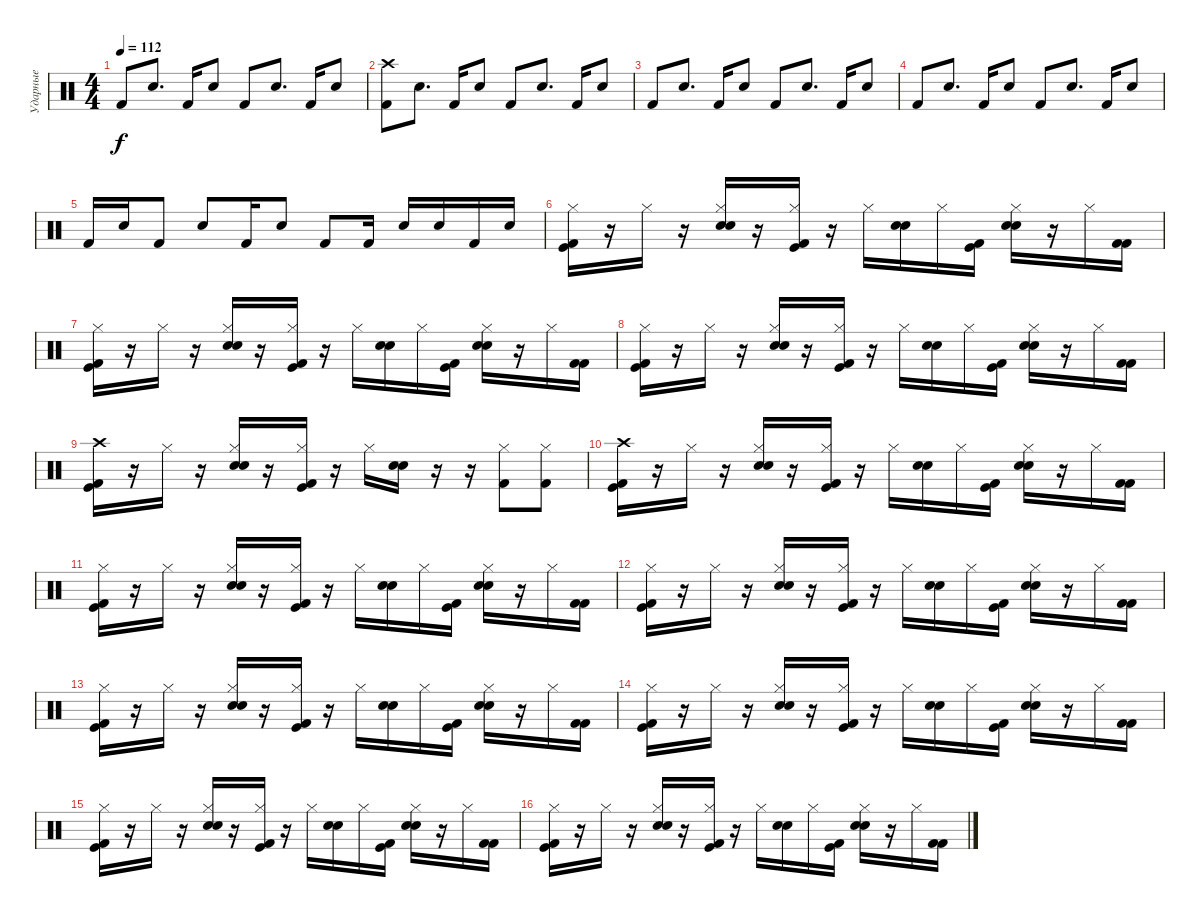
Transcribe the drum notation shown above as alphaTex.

\track ("Ударные" "Ударные") {instrument percussion}
\staff {score}
\articulation defaults
\ts (4 4)
\tempo 112
\clef neutral
\ks c "Kick (hit) 2".8{dy f} "Electric Snare (hit)".8{d} "Kick (hit) 2".16 "Electric Snare (hit)".8 "Kick (hit) 2".8 "Electric Snare (hit)".8{d} "Kick (hit) 2".16 "Electric Snare (hit)".8
|
("Kick (hit) 2" "Crash high (hit)").8 "Electric Snare (hit)".8{d} "Kick (hit) 2".16 "Electric Snare (hit)".8 "Kick (hit) 2".8 "Electric Snare (hit)".8{d} "Kick (hit) 2".16 "Electric Snare (hit)".8 |
"Kick (hit) 2".8 "Electric Snare (hit)".8{d} "Kick (hit) 2".16 "Electric Snare (hit)".8 "Kick (hit) 2".8 "Electric Snare (hit)".8{d} "Kick (hit) 2".16 "Electric Snare (hit)".8 |
"Kick (hit) 2".8 "Electric Snare (hit)".8{d} "Kick (hit) 2".16 "Electric Snare (hit)".8 "Kick (hit) 2".8 "Electric Snare (hit)".8{d} "Kick (hit) 2".16 "Electric Snare (hit)".8 |
"Kick (hit) 2".16 "Electric Snare (hit)".16 "Kick (hit) 2".8 "Electric Snare (hit)".8 "Kick (hit) 2".16 "Electric Snare (hit)".8 "Kick (hit) 2".8 "Kick (hit) 2".16 "Electric Snare (hit)".16 "Electric Snare (hit)".16 "Kick (hit) 2".16 "Electric Snare (hit)".16 |
("Hi-Hat (closed)" "Kick (hit)" "Kick (hit) 2").16 r.16 "Hi-Hat (closed)".16 r.16 ("Hi-Hat (closed)" "Electric Snare (hit)" "Snare (hit) 2").16 r.16 ("Hi-Hat (closed)" "Kick (hit)" "Kick (hit) 2").16 r.16 "Hi-Hat (closed)".16 ("Snare (hit) 2" "Electric Snare (hit)").16 "Hi-Hat (closed)".16 ("Kick (hit)" "Kick (hit) 2").16 ("Hi-Hat (closed)" "Electric Snare (hit)" "Snare (hit) 2").16 r.16 "Hi-Hat (closed)".16 ("Kick (hit) 2" "Kick (hit) 2").16 |
("Hi-Hat (closed)" "Kick (hit)" "Kick (hit) 2").16 r.16 "Hi-Hat (closed)".16 r.16 ("Hi-Hat (closed)" "Electric Snare (hit)" "Snare (hit) 2").16 r.16 ("Hi-Hat (closed)" "Kick (hit)" "Kick (hit) 2").16 r.16 "Hi-Hat (closed)".16 ("Snare (hit) 2" "Electric Snare (hit)").16 "Hi-Hat (closed)".16 ("Kick (hit)" "Kick (hit) 2").16 ("Hi-Hat (closed)" "Electric Snare (hit)" "Snare (hit) 2").16 r.16 "Hi-Hat (closed)".16 ("Kick (hit) 2" "Kick (hit) 2").16 |
("Hi-Hat (closed)" "Kick (hit)" "Kick (hit) 2").16 r.16 "Hi-Hat (closed)".16 r.16 ("Hi-Hat (closed)" "Electric Snare (hit)" "Snare (hit) 2").16 r.16 ("Hi-Hat (closed)" "Kick (hit)" "Kick (hit) 2").16 r.16 "Hi-Hat (closed)".16 ("Snare (hit) 2" "Electric Snare (hit)").16 "Hi-Hat (closed)".16 ("Kick (hit)" "Kick (hit) 2").16 ("Hi-Hat (closed)" "Electric Snare (hit)" "Snare (hit) 2").16 r.16 "Hi-Hat (closed)".16 ("Kick (hit) 2" "Kick (hit) 2").16 |
("Crash high (hit)" "Kick (hit)" "Kick (hit) 2").16 r.16 "Hi-Hat (closed)".16 r.16 ("Hi-Hat (closed)" "Electric Snare (hit)" "Snare (hit) 2").16 r.16 ("Hi-Hat (closed)" "Kick (hit)" "Kick (hit) 2").16 r.16 "Hi-Hat (closed)".16 ("Snare (hit) 2" "Electric Snare (hit)").16 r.16 r.16 ("Kick (hit) 2" "Hi-Hat (closed)").8 ("Kick (hit) 2" "Hi-Hat (closed)").8 |
("Crash high (hit)" "Kick (hit)" "Kick (hit) 2").16 r.16 "Hi-Hat (closed)".16 r.16 ("Hi-Hat (closed)" "Electric Snare (hit)" "Snare (hit) 2").16 r.16 ("Hi-Hat (closed)" "Kick (hit)" "Kick (hit) 2").16 r.16 "Hi-Hat (closed)".16 ("Snare (hit) 2" "Electric Snare (hit)").16 "Hi-Hat (closed)".16 ("Kick (hit)" "Kick (hit) 2").16 ("Hi-Hat (closed)" "Electric Snare (hit)" "Snare (hit) 2").16 r.16 "Hi-Hat (closed)".16 ("Kick (hit) 2" "Kick (hit) 2").16 |
("Hi-Hat (closed)" "Kick (hit)" "Kick (hit) 2").16 r.16 "Hi-Hat (closed)".16 r.16 ("Hi-Hat (closed)" "Electric Snare (hit)" "Snare (hit) 2").16 r.16 ("Hi-Hat (closed)" "Kick (hit)" "Kick (hit) 2").16 r.16 "Hi-Hat (closed)".16 ("Snare (hit) 2" "Electric Snare (hit)").16 "Hi-Hat (closed)".16 ("Kick (hit)" "Kick (hit) 2").16 ("Hi-Hat (closed)" "Electric Snare (hit)" "Snare (hit) 2").16 r.16 "Hi-Hat (closed)".16 ("Kick (hit) 2" "Kick (hit) 2").16 |
("Hi-Hat (closed)" "Kick (hit)" "Kick (hit) 2").16 r.16 "Hi-Hat (closed)".16 r.16 ("Hi-Hat (closed)" "Electric Snare (hit)" "Snare (hit) 2").16 r.16 ("Hi-Hat (closed)" "Kick (hit)" "Kick (hit) 2").16 r.16 "Hi-Hat (closed)".16 ("Snare (hit) 2" "Electric Snare (hit)").16 "Hi-Hat (closed)".16 ("Kick (hit)" "Kick (hit) 2").16 ("Hi-Hat (closed)" "Electric Snare (hit)" "Snare (hit) 2").16 r.16 "Hi-Hat (closed)".16 ("Kick (hit) 2" "Kick (hit) 2").16 |
("Hi-Hat (closed)" "Kick (hit)" "Kick (hit) 2").16 r.16 "Hi-Hat (closed)".16 r.16 ("Hi-Hat (closed)" "Electric Snare (hit)" "Snare (hit) 2").16 r.16 ("Hi-Hat (closed)" "Kick (hit)" "Kick (hit) 2").16 r.16 "Hi-Hat (closed)".16 ("Snare (hit) 2" "Electric Snare (hit)").16 "Hi-Hat (closed)".16 ("Kick (hit)" "Kick (hit) 2").16 ("Hi-Hat (closed)" "Electric Snare (hit)" "Snare (hit) 2").16 r.16 "Hi-Hat (closed)".16 ("Kick (hit) 2" "Kick (hit) 2").16 |
("Hi-Hat (closed)" "Kick (hit)" "Kick (hit) 2").16 r.16 "Hi-Hat (closed)".16 r.16 ("Hi-Hat (closed)" "Electric Snare (hit)" "Snare (hit) 2").16 r.16 ("Hi-Hat (closed)" "Kick (hit)" "Kick (hit) 2").16 r.16 "Hi-Hat (closed)".16 ("Snare (hit) 2" "Electric Snare (hit)").16 "Hi-Hat (closed)".16 ("Kick (hit)" "Kick (hit) 2").16 ("Hi-Hat (closed)" "Electric Snare (hit)" "Snare (hit) 2").16 r.16 "Hi-Hat (closed)".16 ("Kick (hit) 2" "Kick (hit) 2").16 |
("Hi-Hat (closed)" "Kick (hit)" "Kick (hit) 2").16 r.16 "Hi-Hat (closed)".16 r.16 ("Hi-Hat (closed)" "Electric Snare (hit)" "Snare (hit) 2").16 r.16 ("Hi-Hat (closed)" "Kick (hit)" "Kick (hit) 2").16 r.16 "Hi-Hat (closed)".16 ("Snare (hit) 2" "Electric Snare (hit)").16 "Hi-Hat (closed)".16 ("Kick (hit)" "Kick (hit) 2").16 ("Hi-Hat (closed)" "Electric Snare (hit)" "Snare (hit) 2").16 r.16 "Hi-Hat (closed)".16 ("Kick (hit) 2" "Kick (hit) 2").16 |
("Hi-Hat (closed)" "Kick (hit)" "Kick (hit) 2").16 r.16 "Hi-Hat (closed)".16 r.16 ("Hi-Hat (closed)" "Electric Snare (hit)" "Snare (hit) 2").16 r.16 ("Hi-Hat (closed)" "Kick (hit)" "Kick (hit) 2").16 r.16 "Hi-Hat (closed)".16 ("Snare (hit) 2" "Electric Snare (hit)").16 "Hi-Hat (closed)".16 ("Kick (hit)" "Kick (hit) 2").16 ("Hi-Hat (closed)" "Electric Snare (hit)" "Snare (hit) 2").16 r.16 "Hi-Hat (closed)".16 ("Kick (hit) 2" "Kick (hit) 2").16
